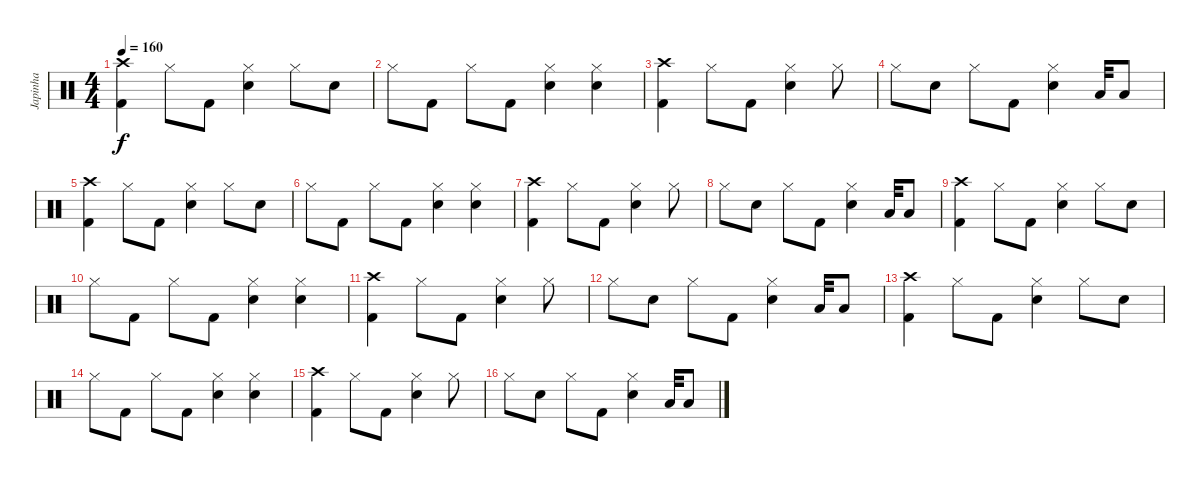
\track ("Japinha" "Japinha") {instrument percussion}
\staff {score}
\articulation defaults
\ts (4 4)
\tempo 160
\clef neutral
\ks c
("Crash high (hit)" "Kick (hit) 2").4{dy f} "Hi-Hat (closed)".8 "Kick (hit) 2".8 ("Hi-Hat (closed)" "Snare (hit) 2").4 "Hi-Hat (closed)".8 "Snare (hit) 2".8 |
"Hi-Hat (closed)".8 "Kick (hit) 2".8 "Hi-Hat (closed)".8 "Kick (hit) 2".8 ("Hi-Hat (closed)" "Snare (hit) 2").4 ("Hi-Hat (closed)" "Snare (hit) 2").4 |
("Crash high (hit)" "Kick (hit) 2").4 "Hi-Hat (closed)".8 "Kick (hit) 2".8 ("Hi-Hat (closed)" "Snare (hit) 2").4 "Hi-Hat (closed)".8 |
"Hi-Hat (closed)".8 "Snare (hit) 2".8 "Hi-Hat (closed)".8 "Kick (hit) 2".8 ("Hi-Hat (closed)" "Snare (hit) 2").4 "Low Tom (hit)".32 "Low Tom (hit)".8 |
("Crash high (hit)" "Kick (hit) 2").4 "Hi-Hat (closed)".8 "Kick (hit) 2".8 ("Hi-Hat (closed)" "Snare (hit) 2").4 "Hi-Hat (closed)".8 "Snare (hit) 2".8 |
"Hi-Hat (closed)".8 "Kick (hit) 2".8 "Hi-Hat (closed)".8 "Kick (hit) 2".8 ("Hi-Hat (closed)" "Snare (hit) 2").4 ("Hi-Hat (closed)" "Snare (hit) 2").4 |
("Crash high (hit)" "Kick (hit) 2").4 "Hi-Hat (closed)".8 "Kick (hit) 2".8 ("Hi-Hat (closed)" "Snare (hit) 2").4 "Hi-Hat (closed)".8 |
"Hi-Hat (closed)".8 "Snare (hit) 2".8 "Hi-Hat (closed)".8 "Kick (hit) 2".8 ("Hi-Hat (closed)" "Snare (hit) 2").4 "Low Tom (hit)".32 "Low Tom (hit)".8 |
("Crash high (hit)" "Kick (hit) 2").4 "Hi-Hat (closed)".8 "Kick (hit) 2".8 ("Hi-Hat (closed)" "Snare (hit) 2").4 "Hi-Hat (closed)".8 "Snare (hit) 2".8 |
"Hi-Hat (closed)".8 "Kick (hit) 2".8 "Hi-Hat (closed)".8 "Kick (hit) 2".8 ("Hi-Hat (closed)" "Snare (hit) 2").4 ("Hi-Hat (closed)" "Snare (hit) 2").4 |
("Crash high (hit)" "Kick (hit) 2").4 "Hi-Hat (closed)".8 "Kick (hit) 2".8 ("Hi-Hat (closed)" "Snare (hit) 2").4 "Hi-Hat (closed)".8 |
"Hi-Hat (closed)".8 "Snare (hit) 2".8 "Hi-Hat (closed)".8 "Kick (hit) 2".8 ("Hi-Hat (closed)" "Snare (hit) 2").4 "Low Tom (hit)".32 "Low Tom (hit)".8 |
("Crash high (hit)" "Kick (hit) 2").4 "Hi-Hat (closed)".8 "Kick (hit) 2".8 ("Hi-Hat (closed)" "Snare (hit) 2").4 "Hi-Hat (closed)".8 "Snare (hit) 2".8 |
"Hi-Hat (closed)".8 "Kick (hit) 2".8 "Hi-Hat (closed)".8 "Kick (hit) 2".8 ("Hi-Hat (closed)" "Snare (hit) 2").4 ("Hi-Hat (closed)" "Snare (hit) 2").4 |
("Crash high (hit)" "Kick (hit) 2").4 "Hi-Hat (closed)".8 "Kick (hit) 2".8 ("Hi-Hat (closed)" "Snare (hit) 2").4 "Hi-Hat (closed)".8 |
"Hi-Hat (closed)".8 "Snare (hit) 2".8 "Hi-Hat (closed)".8 "Kick (hit) 2".8 ("Hi-Hat (closed)" "Snare (hit) 2").4 "Low Tom (hit)".32 "Low Tom (hit)".8
